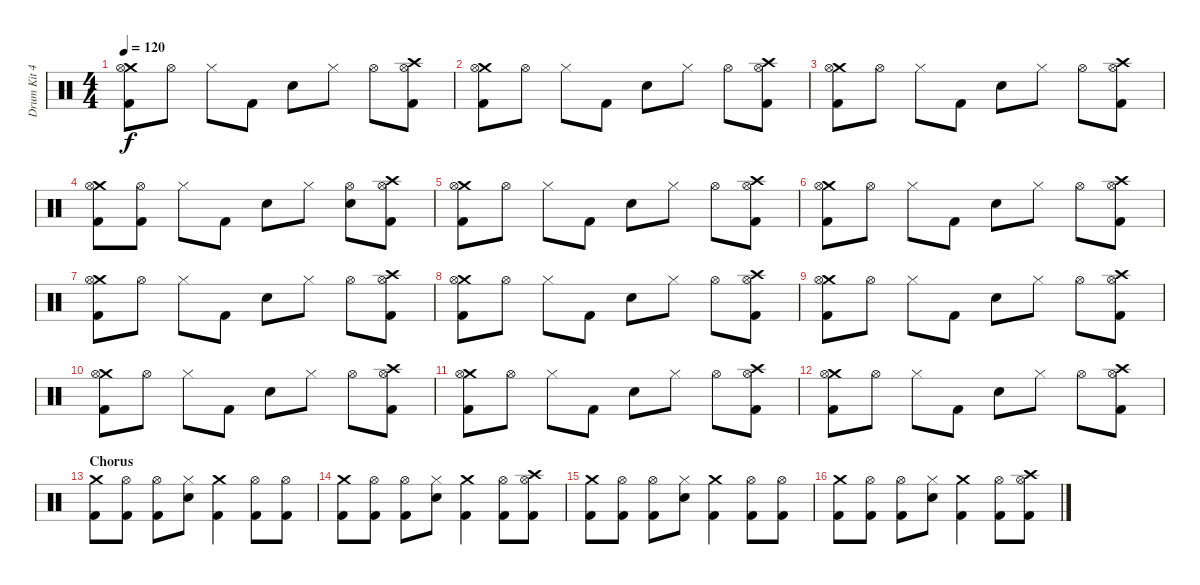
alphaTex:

\track ("Drum Kit 42" "Drum Kit 4") {instrument percussion}
\staff {score}
\articulation defaults
\ts (4 4)
\tempo 120
\clef neutral
\ks c
("Crash medium (hit)" "Hi-Hat (open)" "Kick (hit) 2").8{dy f} "Hi-Hat (open)".8 "Hi-Hat (closed)".8 "Kick (hit) 2".8 "Snare (hit) 2".8 "Hi-Hat (closed)".8 "Hi-Hat (open)".8 ("Crash high (hit)" "Hi-Hat (open)" "Kick (hit) 2").8 |
("Crash medium (hit)" "Hi-Hat (open)" "Kick (hit) 2").8 "Hi-Hat (open)".8 "Hi-Hat (closed)".8 "Kick (hit) 2".8 "Snare (hit) 2".8 "Hi-Hat (closed)".8 "Hi-Hat (open)".8 ("Crash high (hit)" "Hi-Hat (open)" "Kick (hit) 2").8 |
("Crash medium (hit)" "Hi-Hat (open)" "Kick (hit) 2").8 "Hi-Hat (open)".8 "Hi-Hat (closed)".8 "Kick (hit) 2".8 "Snare (hit) 2".8 "Hi-Hat (closed)".8 "Hi-Hat (open)".8 ("Crash high (hit)" "Hi-Hat (open)" "Kick (hit) 2").8 |
("Crash medium (hit)" "Hi-Hat (open)" "Kick (hit) 2").8 ("Hi-Hat (open)" "Kick (hit) 2").8 "Hi-Hat (closed)".8 "Kick (hit) 2".8 "Snare (hit) 2".8 "Hi-Hat (closed)".8 ("Hi-Hat (open)" "Snare (hit) 2").8 ("Crash high (hit)" "Hi-Hat (open)" "Kick (hit) 2").8 |
("Crash medium (hit)" "Hi-Hat (open)" "Kick (hit) 2").8 "Hi-Hat (open)".8 "Hi-Hat (closed)".8 "Kick (hit) 2".8 "Snare (hit) 2".8 "Hi-Hat (closed)".8 "Hi-Hat (open)".8 ("Crash high (hit)" "Hi-Hat (open)" "Kick (hit) 2").8 |
("Crash medium (hit)" "Hi-Hat (open)" "Kick (hit) 2").8 "Hi-Hat (open)".8 "Hi-Hat (closed)".8 "Kick (hit) 2".8 "Snare (hit) 2".8 "Hi-Hat (closed)".8 "Hi-Hat (open)".8 ("Crash high (hit)" "Hi-Hat (open)" "Kick (hit) 2").8 |
("Crash medium (hit)" "Hi-Hat (open)" "Kick (hit) 2").8 "Hi-Hat (open)".8 "Hi-Hat (closed)".8 "Kick (hit) 2".8 "Snare (hit) 2".8 "Hi-Hat (closed)".8 "Hi-Hat (open)".8 ("Crash high (hit)" "Hi-Hat (open)" "Kick (hit) 2").8 |
("Crash medium (hit)" "Hi-Hat (open)" "Kick (hit) 2").8 "Hi-Hat (open)".8 "Hi-Hat (closed)".8 "Kick (hit) 2".8 "Snare (hit) 2".8 "Hi-Hat (closed)".8 "Hi-Hat (open)".8 ("Crash high (hit)" "Hi-Hat (open)" "Kick (hit) 2").8 |
("Crash medium (hit)" "Hi-Hat (open)" "Kick (hit) 2").8 "Hi-Hat (open)".8 "Hi-Hat (closed)".8 "Kick (hit) 2".8 "Snare (hit) 2".8 "Hi-Hat (closed)".8 "Hi-Hat (open)".8 ("Crash high (hit)" "Hi-Hat (open)" "Kick (hit) 2").8 |
("Crash medium (hit)" "Hi-Hat (open)" "Kick (hit) 2").8 "Hi-Hat (open)".8 "Hi-Hat (closed)".8 "Kick (hit) 2".8 "Snare (hit) 2".8 "Hi-Hat (closed)".8 "Hi-Hat (open)".8 ("Crash high (hit)" "Hi-Hat (open)" "Kick (hit) 2").8 |
("Crash medium (hit)" "Hi-Hat (open)" "Kick (hit) 2").8 "Hi-Hat (open)".8 "Hi-Hat (closed)".8 "Kick (hit) 2".8 "Snare (hit) 2".8 "Hi-Hat (closed)".8 "Hi-Hat (open)".8 ("Crash high (hit)" "Hi-Hat (open)" "Kick (hit) 2").8 |
("Crash medium (hit)" "Hi-Hat (open)" "Kick (hit) 2").8 "Hi-Hat (open)".8 "Hi-Hat (closed)".8 "Kick (hit) 2".8 "Snare (hit) 2".8 "Hi-Hat (closed)".8 "Hi-Hat (open)".8 ("Crash high (hit)" "Hi-Hat (open)" "Kick (hit) 2").8 |
\section ("" "Chorus")
("Crash medium (hit)" "Kick (hit) 2").8 ("Hi-Hat (open)" "Kick (hit) 2").8 ("Hi-Hat (open)" "Kick (hit) 2").8 ("Hi-Hat (closed)" "Snare (hit) 2").8 ("Crash medium (hit)" "Kick (hit) 2").4 ("Hi-Hat (open)" "Kick (hit) 2").8 ("Hi-Hat (open)" "Kick (hit) 2").8 |
("Crash medium (hit)" "Kick (hit) 2").8 ("Hi-Hat (open)" "Kick (hit) 2").8 ("Hi-Hat (open)" "Kick (hit) 2").8 ("Hi-Hat (closed)" "Snare (hit) 2").8 ("Crash medium (hit)" "Kick (hit) 2").4 ("Hi-Hat (open)" "Kick (hit) 2").8 ("Crash high (hit)" "Hi-Hat (open)" "Kick (hit) 2").8 |
("Crash medium (hit)" "Kick (hit) 2").8 ("Hi-Hat (open)" "Kick (hit) 2").8 ("Hi-Hat (open)" "Kick (hit) 2").8 ("Hi-Hat (closed)" "Snare (hit) 2").8 ("Crash medium (hit)" "Kick (hit) 2").4 ("Hi-Hat (open)" "Kick (hit) 2").8 ("Hi-Hat (open)" "Kick (hit) 2").8 |
("Crash medium (hit)" "Kick (hit) 2").8 ("Hi-Hat (open)" "Kick (hit) 2").8 ("Hi-Hat (open)" "Kick (hit) 2").8 ("Hi-Hat (closed)" "Snare (hit) 2").8 ("Crash medium (hit)" "Kick (hit) 2").4 ("Hi-Hat (open)" "Kick (hit) 2").8 ("Crash high (hit)" "Hi-Hat (open)" "Kick (hit) 2").8
